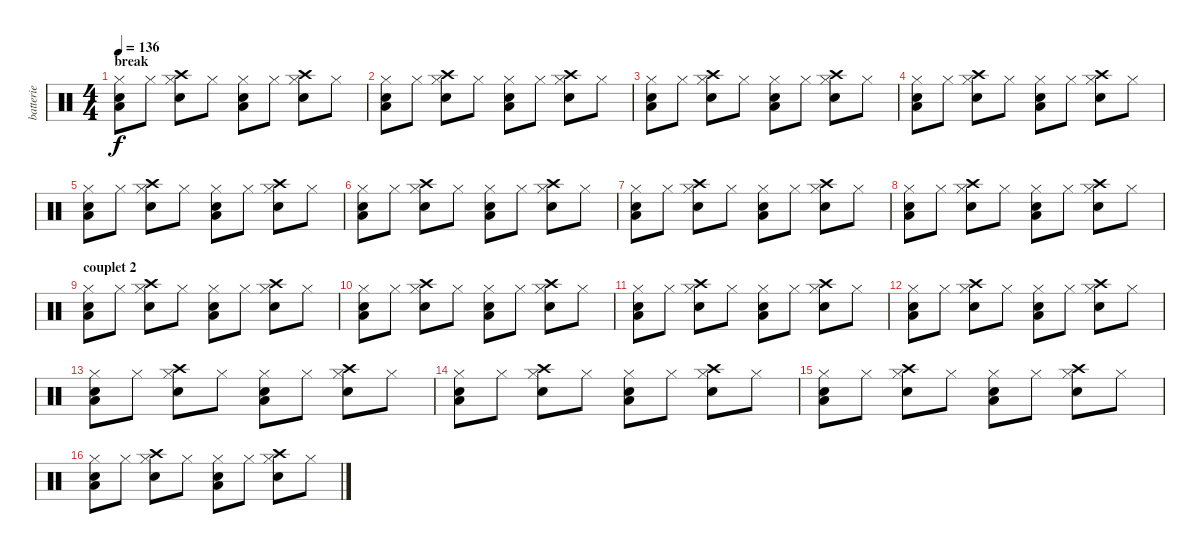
\track ("batterie" "batterie") {instrument percussion}
\staff {score}
\articulation defaults
\ts (4 4)
\section ("" "break")
\tempo 136
\clef neutral
\ks c
("Hi-Hat (closed)" "Snare (hit) 2" "Low Floor Tom (hit)").8{dy f} "Hi-Hat (closed)".8 ("Hi-Hat (closed)" "Crash high (hit)" "Electric Snare (hit)").8 "Hi-Hat (closed)".8 ("Hi-Hat (closed)" "Snare (hit) 2" "Low Floor Tom (hit)").8 "Hi-Hat (closed)".8 ("Hi-Hat (closed)" "Crash high (hit)" "Electric Snare (hit)").8 "Hi-Hat (closed)".8 |
("Hi-Hat (closed)" "Snare (hit) 2" "Low Floor Tom (hit)").8 "Hi-Hat (closed)".8 ("Hi-Hat (closed)" "Crash high (hit)" "Electric Snare (hit)").8 "Hi-Hat (closed)".8 ("Hi-Hat (closed)" "Snare (hit) 2" "Low Floor Tom (hit)").8 "Hi-Hat (closed)".8 ("Hi-Hat (closed)" "Crash high (hit)" "Electric Snare (hit)").8 "Hi-Hat (closed)".8 |
("Hi-Hat (closed)" "Snare (hit) 2" "Low Floor Tom (hit)").8 "Hi-Hat (closed)".8 ("Hi-Hat (closed)" "Crash high (hit)" "Electric Snare (hit)").8 "Hi-Hat (closed)".8 ("Hi-Hat (closed)" "Snare (hit) 2" "Low Floor Tom (hit)").8 "Hi-Hat (closed)".8 ("Hi-Hat (closed)" "Crash high (hit)" "Electric Snare (hit)").8 "Hi-Hat (closed)".8 |
("Hi-Hat (closed)" "Snare (hit) 2" "Low Floor Tom (hit)").8 "Hi-Hat (closed)".8 ("Hi-Hat (closed)" "Crash high (hit)" "Electric Snare (hit)").8 "Hi-Hat (closed)".8 ("Hi-Hat (closed)" "Snare (hit) 2" "Low Floor Tom (hit)").8 "Hi-Hat (closed)".8 ("Hi-Hat (closed)" "Crash high (hit)" "Electric Snare (hit)").8 "Hi-Hat (closed)".8 |
("Hi-Hat (closed)" "Snare (hit) 2" "Low Floor Tom (hit)").8 "Hi-Hat (closed)".8 ("Hi-Hat (closed)" "Crash high (hit)" "Electric Snare (hit)").8 "Hi-Hat (closed)".8 ("Hi-Hat (closed)" "Snare (hit) 2" "Low Floor Tom (hit)").8 "Hi-Hat (closed)".8 ("Hi-Hat (closed)" "Crash high (hit)" "Electric Snare (hit)").8 "Hi-Hat (closed)".8 |
("Hi-Hat (closed)" "Snare (hit) 2" "Low Floor Tom (hit)").8 "Hi-Hat (closed)".8 ("Hi-Hat (closed)" "Crash high (hit)" "Electric Snare (hit)").8 "Hi-Hat (closed)".8 ("Hi-Hat (closed)" "Snare (hit) 2" "Low Floor Tom (hit)").8 "Hi-Hat (closed)".8 ("Hi-Hat (closed)" "Crash high (hit)" "Electric Snare (hit)").8 "Hi-Hat (closed)".8 |
("Hi-Hat (closed)" "Snare (hit) 2" "Low Floor Tom (hit)").8 "Hi-Hat (closed)".8 ("Hi-Hat (closed)" "Crash high (hit)" "Electric Snare (hit)").8 "Hi-Hat (closed)".8 ("Hi-Hat (closed)" "Snare (hit) 2" "Low Floor Tom (hit)").8 "Hi-Hat (closed)".8 ("Hi-Hat (closed)" "Crash high (hit)" "Electric Snare (hit)").8 "Hi-Hat (closed)".8 |
("Hi-Hat (closed)" "Snare (hit) 2" "Low Floor Tom (hit)").8 "Hi-Hat (closed)".8 ("Hi-Hat (closed)" "Crash high (hit)" "Electric Snare (hit)").8 "Hi-Hat (closed)".8 ("Hi-Hat (closed)" "Snare (hit) 2" "Low Floor Tom (hit)").8 "Hi-Hat (closed)".8 ("Hi-Hat (closed)" "Crash high (hit)" "Electric Snare (hit)").8 "Hi-Hat (closed)".8 |
\section ("" "couplet 2")
("Hi-Hat (closed)" "Snare (hit) 2" "Low Floor Tom (hit)").8 "Hi-Hat (closed)".8 ("Hi-Hat (closed)" "Crash high (hit)" "Electric Snare (hit)").8 "Hi-Hat (closed)".8 ("Hi-Hat (closed)" "Snare (hit) 2" "Low Floor Tom (hit)").8 "Hi-Hat (closed)".8 ("Hi-Hat (closed)" "Crash high (hit)" "Electric Snare (hit)").8 "Hi-Hat (closed)".8 |
("Hi-Hat (closed)" "Snare (hit) 2" "Low Floor Tom (hit)").8 "Hi-Hat (closed)".8 ("Hi-Hat (closed)" "Crash high (hit)" "Electric Snare (hit)").8 "Hi-Hat (closed)".8 ("Hi-Hat (closed)" "Snare (hit) 2" "Low Floor Tom (hit)").8 "Hi-Hat (closed)".8 ("Hi-Hat (closed)" "Crash high (hit)" "Electric Snare (hit)").8 "Hi-Hat (closed)".8 |
("Hi-Hat (closed)" "Snare (hit) 2" "Low Floor Tom (hit)").8 "Hi-Hat (closed)".8 ("Hi-Hat (closed)" "Crash high (hit)" "Electric Snare (hit)").8 "Hi-Hat (closed)".8 ("Hi-Hat (closed)" "Snare (hit) 2" "Low Floor Tom (hit)").8 "Hi-Hat (closed)".8 ("Hi-Hat (closed)" "Crash high (hit)" "Electric Snare (hit)").8 "Hi-Hat (closed)".8 |
("Hi-Hat (closed)" "Snare (hit) 2" "Low Floor Tom (hit)").8 "Hi-Hat (closed)".8 ("Hi-Hat (closed)" "Crash high (hit)" "Electric Snare (hit)").8 "Hi-Hat (closed)".8 ("Hi-Hat (closed)" "Snare (hit) 2" "Low Floor Tom (hit)").8 "Hi-Hat (closed)".8 ("Hi-Hat (closed)" "Crash high (hit)" "Electric Snare (hit)").8 "Hi-Hat (closed)".8 |
("Hi-Hat (closed)" "Snare (hit) 2" "Low Floor Tom (hit)").8 "Hi-Hat (closed)".8 ("Hi-Hat (closed)" "Crash high (hit)" "Electric Snare (hit)").8 "Hi-Hat (closed)".8 ("Hi-Hat (closed)" "Snare (hit) 2" "Low Floor Tom (hit)").8 "Hi-Hat (closed)".8 ("Hi-Hat (closed)" "Crash high (hit)" "Electric Snare (hit)").8 "Hi-Hat (closed)".8 |
("Hi-Hat (closed)" "Snare (hit) 2" "Low Floor Tom (hit)").8 "Hi-Hat (closed)".8 ("Hi-Hat (closed)" "Crash high (hit)" "Electric Snare (hit)").8 "Hi-Hat (closed)".8 ("Hi-Hat (closed)" "Snare (hit) 2" "Low Floor Tom (hit)").8 "Hi-Hat (closed)".8 ("Hi-Hat (closed)" "Crash high (hit)" "Electric Snare (hit)").8 "Hi-Hat (closed)".8 |
("Hi-Hat (closed)" "Snare (hit) 2" "Low Floor Tom (hit)").8 "Hi-Hat (closed)".8 ("Hi-Hat (closed)" "Crash high (hit)" "Electric Snare (hit)").8 "Hi-Hat (closed)".8 ("Hi-Hat (closed)" "Snare (hit) 2" "Low Floor Tom (hit)").8 "Hi-Hat (closed)".8 ("Hi-Hat (closed)" "Crash high (hit)" "Electric Snare (hit)").8 "Hi-Hat (closed)".8 |
("Hi-Hat (closed)" "Snare (hit) 2" "Low Floor Tom (hit)").8 "Hi-Hat (closed)".8 ("Hi-Hat (closed)" "Crash high (hit)" "Electric Snare (hit)").8 "Hi-Hat (closed)".8 ("Hi-Hat (closed)" "Snare (hit) 2" "Low Floor Tom (hit)").8 "Hi-Hat (closed)".8 ("Hi-Hat (closed)" "Crash high (hit)" "Electric Snare (hit)").8 "Hi-Hat (closed)".8
